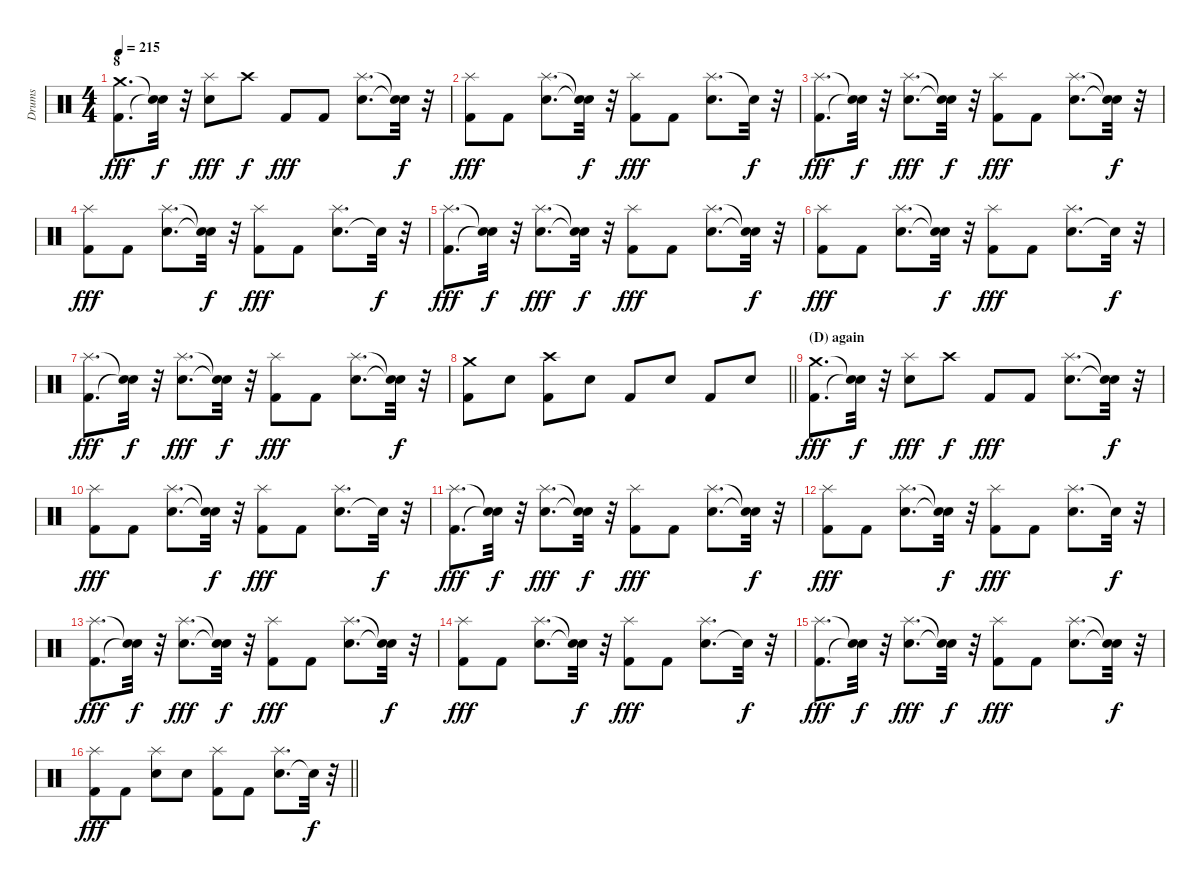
\track ("Drums" "Drums") {instrument percussion}
\staff {score}
\articulation defaults
\ts (4 4)
\section ("" "8")
\tempo 215
\clef neutral
\ks c
("Crash medium (hit)" "Kick (hit) 2").8{d dy fff} ("Snare (hit)"{t} "Snare (hit)"{t}).32{dy f} r.32 ("Splash (hit)" "Electric Snare (hit)").8{dy fff} "Crash high (hit)".8{dy f} "Kick (hit) 2".8{dy fff} "Kick (hit) 2".8 ("Splash (hit)" "Electric Snare (hit)").8{d} ("Snare (hit)"{t} "Snare (hit)"{t}).32{dy f} r.32 |
("Kick (hit) 2" "Splash (hit)").8{dy fff} "Kick (hit) 2".8 ("Splash (hit)" "Electric Snare (hit)").8{d} ("Snare (hit)"{t} "Snare (hit)"{t}).32{dy f} r.32 ("Splash (hit)" "Kick (hit) 2").8{dy fff} "Kick (hit) 2".8 ("Splash (hit)" "Electric Snare (hit)").8{d} "Snare (hit)"{t}.32{dy f} r.32 |
("Splash (hit)" "Kick (hit) 2").8{d dy fff} ("Snare (hit)"{t} "Snare (hit)"{t}).32{dy f} r.32 ("Splash (hit)" "Electric Snare (hit)").8{d dy fff} ("Snare (hit)"{t} "Snare (hit)"{t}).32{dy f} r.32 ("Splash (hit)" "Kick (hit) 2").8{dy fff} "Kick (hit) 2".8 ("Electric Snare (hit)" "Splash (hit)").8{d} ("Snare (hit)"{t} "Snare (hit)"{t}).32{dy f} r.32 |
("Splash (hit)" "Kick (hit) 2").8{dy fff} "Kick (hit) 2".8 ("Electric Snare (hit)" "Splash (hit)").8{d} ("Snare (hit)"{t} "Snare (hit)"{t}).32{dy f} r.32 ("Kick (hit) 2" "Splash (hit)").8{dy fff} "Kick (hit) 2".8 ("Electric Snare (hit)" "Splash (hit)").8{d} "Snare (hit)"{t}.32{dy f} r.32 |
("Splash (hit)" "Kick (hit) 2").8{d dy fff} ("Snare (hit)"{t} "Snare (hit)"{t}).32{dy f} r.32 ("Electric Snare (hit)" "Splash (hit)").8{d dy fff} ("Snare (hit)"{t} "Snare (hit)"{t}).32{dy f} r.32 ("Kick (hit) 2" "Splash (hit)").8{dy fff} "Kick (hit) 2".8 ("Splash (hit)" "Electric Snare (hit)").8{d} ("Snare (hit)"{t} "Snare (hit)"{t}).32{dy f} r.32 |
("Splash (hit)" "Kick (hit) 2").8{dy fff} "Kick (hit) 2".8 ("Electric Snare (hit)" "Splash (hit)").8{d} ("Snare (hit)"{t} "Snare (hit)"{t}).32{dy f} r.32 ("Kick (hit) 2" "Splash (hit)").8{dy fff} "Kick (hit) 2".8 ("Electric Snare (hit)" "Splash (hit)").8{d} "Snare (hit)"{t}.32{dy f} r.32 |
("Splash (hit)" "Kick (hit) 2").8{d dy fff} ("Snare (hit)"{t} "Snare (hit)"{t}).32{dy f} r.32 ("Electric Snare (hit)" "Splash (hit)").8{d dy fff} ("Snare (hit)"{t} "Snare (hit)"{t}).32{dy f} r.32 ("Splash (hit)" "Kick (hit) 2").8{dy fff} "Kick (hit) 2".8 ("Electric Snare (hit)" "Splash (hit)").8{d} ("Snare (hit)"{t} "Snare (hit)"{t}).32{dy f} r.32 |
\barLineRight lightlight
("Kick (hit) 2" "Crash medium (hit)").8 "Electric Snare (hit)".8 ("Crash high (hit)" "Kick (hit) 2").8 "Electric Snare (hit)".8 "Kick (hit) 2".8 "Electric Snare (hit)".8 "Kick (hit) 2".8 "Electric Snare (hit)".8 |
\section ("" "(D) again")
("Crash medium (hit)" "Kick (hit) 2").8{d dy fff} ("Snare (hit)"{t} "Snare (hit)"{t}).32{dy f} r.32 ("Splash (hit)" "Electric Snare (hit)").8{dy fff} "Crash high (hit)".8{dy f} "Kick (hit) 2".8{dy fff} "Kick (hit) 2".8 ("Electric Snare (hit)" "Splash (hit)").8{d} ("Snare (hit)"{t} "Snare (hit)"{t}).32{dy f} r.32 |
("Kick (hit) 2" "Splash (hit)").8{dy fff} "Kick (hit) 2".8 ("Electric Snare (hit)" "Splash (hit)").8{d} ("Snare (hit)"{t} "Snare (hit)"{t}).32{dy f} r.32 ("Kick (hit) 2" "Splash (hit)").8{dy fff} "Kick (hit) 2".8 ("Electric Snare (hit)" "Splash (hit)").8{d} "Snare (hit)"{t}.32{dy f} r.32 |
("Kick (hit) 2" "Splash (hit)").8{d dy fff} ("Snare (hit)"{t} "Snare (hit)"{t}).32{dy f} r.32 ("Splash (hit)" "Electric Snare (hit)").8{d dy fff} ("Snare (hit)"{t} "Snare (hit)"{t}).32{dy f} r.32 ("Splash (hit)" "Kick (hit) 2").8{dy fff} "Kick (hit) 2".8 ("Electric Snare (hit)" "Splash (hit)").8{d} ("Snare (hit)"{t} "Snare (hit)"{t}).32{dy f} r.32 |
("Kick (hit) 2" "Splash (hit)").8{dy fff} "Kick (hit) 2".8 ("Electric Snare (hit)" "Splash (hit)").8{d} ("Snare (hit)"{t} "Snare (hit)"{t}).32{dy f} r.32 ("Splash (hit)" "Kick (hit) 2").8{dy fff} "Kick (hit) 2".8 ("Splash (hit)" "Electric Snare (hit)").8{d} "Snare (hit)"{t}.32{dy f} r.32 |
("Kick (hit) 2" "Splash (hit)").8{d dy fff} ("Snare (hit)"{t} "Snare (hit)"{t}).32{dy f} r.32 ("Electric Snare (hit)" "Splash (hit)").8{d dy fff} ("Snare (hit)"{t} "Snare (hit)"{t}).32{dy f} r.32 ("Kick (hit) 2" "Splash (hit)").8{dy fff} "Kick (hit) 2".8 ("Splash (hit)" "Electric Snare (hit)").8{d} ("Snare (hit)"{t} "Snare (hit)"{t}).32{dy f} r.32 |
("Kick (hit) 2" "Splash (hit)").8{dy fff} "Kick (hit) 2".8 ("Electric Snare (hit)" "Splash (hit)").8{d} ("Snare (hit)"{t} "Snare (hit)"{t}).32{dy f} r.32 ("Splash (hit)" "Kick (hit) 2").8{dy fff} "Kick (hit) 2".8 ("Electric Snare (hit)" "Splash (hit)").8{d} "Snare (hit)"{t}.32{dy f} r.32 |
("Kick (hit) 2" "Splash (hit)").8{d dy fff} ("Snare (hit)"{t} "Snare (hit)"{t}).32{dy f} r.32 ("Splash (hit)" "Electric Snare (hit)").8{d dy fff} ("Snare (hit)"{t} "Snare (hit)"{t}).32{dy f} r.32 ("Splash (hit)" "Kick (hit) 2").8{dy fff} "Kick (hit) 2".8 ("Electric Snare (hit)" "Splash (hit)").8{d} ("Snare (hit)"{t} "Snare (hit)"{t}).32{dy f} r.32 |
\barLineRight lightlight
("Splash (hit)" "Kick (hit) 2").8{dy fff} "Kick (hit) 2".8 ("Electric Snare (hit)" "Splash (hit)").8 "Electric Snare (hit)".8 ("Kick (hit) 2" "Splash (hit)").8 "Kick (hit) 2".8 ("Electric Snare (hit)" "Splash (hit)").8{d} "Snare (hit)"{t}.32{dy f} r.32
